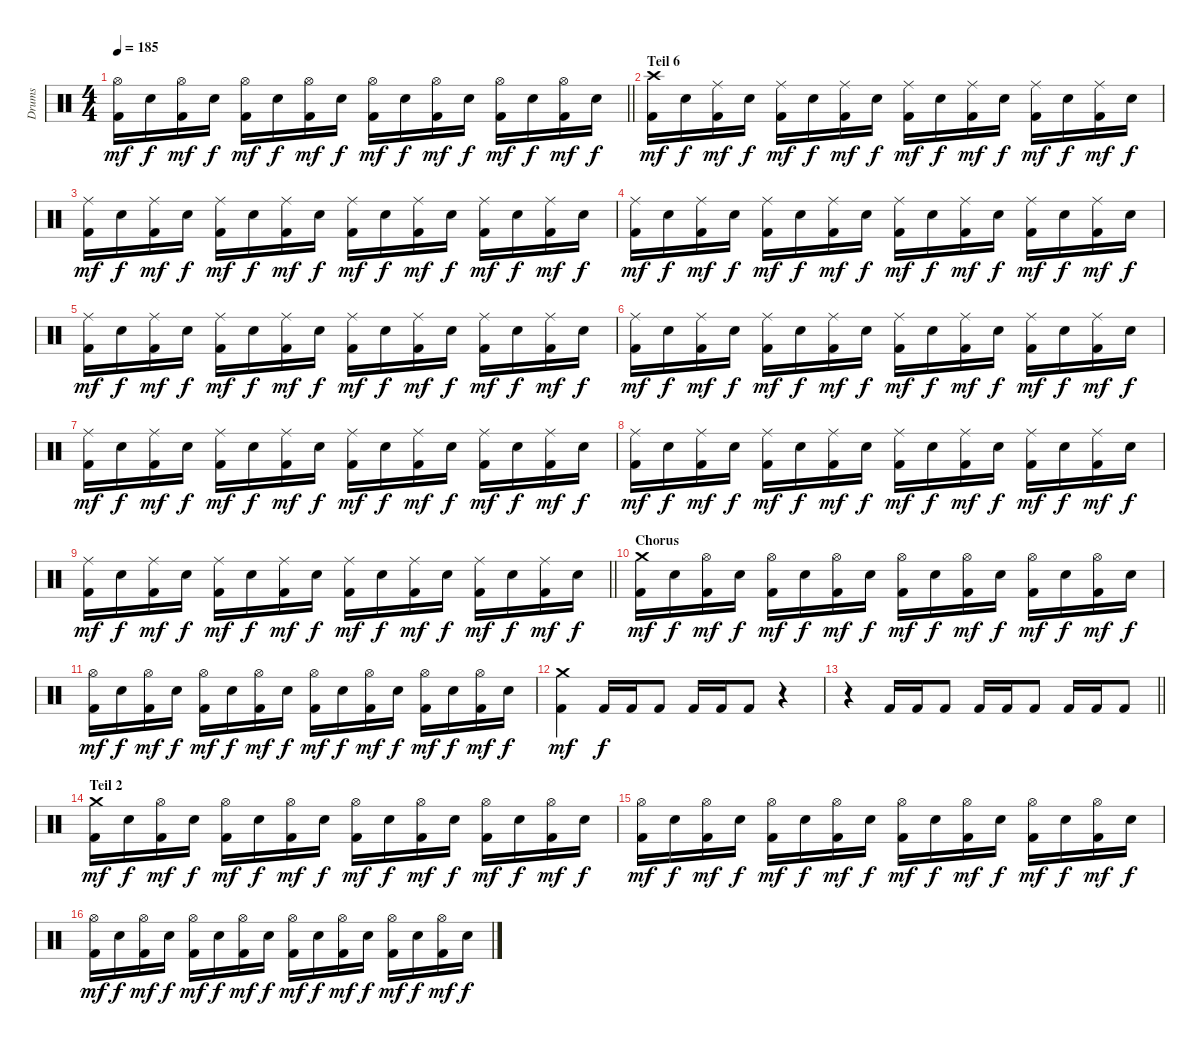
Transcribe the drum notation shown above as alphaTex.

\track ("Drums" "Drums") {instrument percussion}
\staff {score}
\articulation defaults
\ts (4 4)
\tempo 185
\clef neutral
\barLineRight lightlight
\ks c
("Hi-Hat (open)" "Kick (hit) 2").16{dy mf} "Electric Snare (hit)".16{dy f} ("Hi-Hat (open)" "Kick (hit) 2").16{dy mf} "Electric Snare (hit)".16{dy f} ("Hi-Hat (open)" "Kick (hit) 2").16{dy mf} "Electric Snare (hit)".16{dy f} ("Hi-Hat (open)" "Kick (hit) 2").16{dy mf} "Electric Snare (hit)".16{dy f} ("Hi-Hat (open)" "Kick (hit) 2").16{dy mf} "Electric Snare (hit)".16{dy f} ("Hi-Hat (open)" "Kick (hit) 2").16{dy mf} "Electric Snare (hit)".16{dy f} ("Hi-Hat (open)" "Kick (hit) 2").16{dy mf} "Electric Snare (hit)".16{dy f} ("Hi-Hat (open)" "Kick (hit) 2").16{dy mf} "Electric Snare (hit)".16{dy f} |
\section ("" "Teil 6")
("Crash high (hit)" "Kick (hit) 2").16{dy mf} "Electric Snare (hit)".16{dy f} ("Ride (middle)" "Kick (hit) 2").16{dy mf} "Electric Snare (hit)".16{dy f} ("Ride (middle)" "Kick (hit) 2").16{dy mf} "Electric Snare (hit)".16{dy f} ("Ride (middle)" "Kick (hit) 2").16{dy mf} "Electric Snare (hit)".16{dy f} ("Ride (middle)" "Kick (hit) 2").16{dy mf} "Electric Snare (hit)".16{dy f} ("Ride (middle)" "Kick (hit) 2").16{dy mf} "Electric Snare (hit)".16{dy f} ("Ride (middle)" "Kick (hit) 2").16{dy mf} "Electric Snare (hit)".16{dy f} ("Ride (middle)" "Kick (hit) 2").16{dy mf} "Electric Snare (hit)".16{dy f} |
("Ride (middle)" "Kick (hit) 2").16{dy mf} "Electric Snare (hit)".16{dy f} ("Ride (middle)" "Kick (hit) 2").16{dy mf} "Electric Snare (hit)".16{dy f} ("Ride (middle)" "Kick (hit) 2").16{dy mf} "Electric Snare (hit)".16{dy f} ("Ride (middle)" "Kick (hit) 2").16{dy mf} "Electric Snare (hit)".16{dy f} ("Ride (middle)" "Kick (hit) 2").16{dy mf} "Electric Snare (hit)".16{dy f} ("Ride (middle)" "Kick (hit) 2").16{dy mf} "Electric Snare (hit)".16{dy f} ("Ride (middle)" "Kick (hit) 2").16{dy mf} "Electric Snare (hit)".16{dy f} ("Ride (middle)" "Kick (hit) 2").16{dy mf} "Electric Snare (hit)".16{dy f} |
("Ride (middle)" "Kick (hit) 2").16{dy mf} "Electric Snare (hit)".16{dy f} ("Ride (middle)" "Kick (hit) 2").16{dy mf} "Electric Snare (hit)".16{dy f} ("Ride (middle)" "Kick (hit) 2").16{dy mf} "Electric Snare (hit)".16{dy f} ("Ride (middle)" "Kick (hit) 2").16{dy mf} "Electric Snare (hit)".16{dy f} ("Ride (middle)" "Kick (hit) 2").16{dy mf} "Electric Snare (hit)".16{dy f} ("Ride (middle)" "Kick (hit) 2").16{dy mf} "Electric Snare (hit)".16{dy f} ("Ride (middle)" "Kick (hit) 2").16{dy mf} "Electric Snare (hit)".16{dy f} ("Ride (middle)" "Kick (hit) 2").16{dy mf} "Electric Snare (hit)".16{dy f} |
("Ride (middle)" "Kick (hit) 2").16{dy mf} "Electric Snare (hit)".16{dy f} ("Ride (middle)" "Kick (hit) 2").16{dy mf} "Electric Snare (hit)".16{dy f} ("Ride (middle)" "Kick (hit) 2").16{dy mf} "Electric Snare (hit)".16{dy f} ("Ride (middle)" "Kick (hit) 2").16{dy mf} "Electric Snare (hit)".16{dy f} ("Ride (middle)" "Kick (hit) 2").16{dy mf} "Electric Snare (hit)".16{dy f} ("Ride (middle)" "Kick (hit) 2").16{dy mf} "Electric Snare (hit)".16{dy f} ("Ride (middle)" "Kick (hit) 2").16{dy mf} "Electric Snare (hit)".16{dy f} ("Ride (middle)" "Kick (hit) 2").16{dy mf} "Electric Snare (hit)".16{dy f} |
("Ride (middle)" "Kick (hit) 2").16{dy mf} "Electric Snare (hit)".16{dy f} ("Ride (middle)" "Kick (hit) 2").16{dy mf} "Electric Snare (hit)".16{dy f} ("Ride (middle)" "Kick (hit) 2").16{dy mf} "Electric Snare (hit)".16{dy f} ("Ride (middle)" "Kick (hit) 2").16{dy mf} "Electric Snare (hit)".16{dy f} ("Ride (middle)" "Kick (hit) 2").16{dy mf} "Electric Snare (hit)".16{dy f} ("Ride (middle)" "Kick (hit) 2").16{dy mf} "Electric Snare (hit)".16{dy f} ("Ride (middle)" "Kick (hit) 2").16{dy mf} "Electric Snare (hit)".16{dy f} ("Ride (middle)" "Kick (hit) 2").16{dy mf} "Electric Snare (hit)".16{dy f} |
("Ride (middle)" "Kick (hit) 2").16{dy mf} "Electric Snare (hit)".16{dy f} ("Ride (middle)" "Kick (hit) 2").16{dy mf} "Electric Snare (hit)".16{dy f} ("Ride (middle)" "Kick (hit) 2").16{dy mf} "Electric Snare (hit)".16{dy f} ("Ride (middle)" "Kick (hit) 2").16{dy mf} "Electric Snare (hit)".16{dy f} ("Ride (middle)" "Kick (hit) 2").16{dy mf} "Electric Snare (hit)".16{dy f} ("Ride (middle)" "Kick (hit) 2").16{dy mf} "Electric Snare (hit)".16{dy f} ("Ride (middle)" "Kick (hit) 2").16{dy mf} "Electric Snare (hit)".16{dy f} ("Ride (middle)" "Kick (hit) 2").16{dy mf} "Electric Snare (hit)".16{dy f} |
("Ride (middle)" "Kick (hit) 2").16{dy mf} "Electric Snare (hit)".16{dy f} ("Ride (middle)" "Kick (hit) 2").16{dy mf} "Electric Snare (hit)".16{dy f} ("Ride (middle)" "Kick (hit) 2").16{dy mf} "Electric Snare (hit)".16{dy f} ("Ride (middle)" "Kick (hit) 2").16{dy mf} "Electric Snare (hit)".16{dy f} ("Ride (middle)" "Kick (hit) 2").16{dy mf} "Electric Snare (hit)".16{dy f} ("Ride (middle)" "Kick (hit) 2").16{dy mf} "Electric Snare (hit)".16{dy f} ("Ride (middle)" "Kick (hit) 2").16{dy mf} "Electric Snare (hit)".16{dy f} ("Ride (middle)" "Kick (hit) 2").16{dy mf} "Electric Snare (hit)".16{dy f} |
\barLineRight lightlight
("Ride (middle)" "Kick (hit) 2").16{dy mf} "Electric Snare (hit)".16{dy f} ("Ride (middle)" "Kick (hit) 2").16{dy mf} "Electric Snare (hit)".16{dy f} ("Ride (middle)" "Kick (hit) 2").16{dy mf} "Electric Snare (hit)".16{dy f} ("Ride (middle)" "Kick (hit) 2").16{dy mf} "Electric Snare (hit)".16{dy f} ("Ride (middle)" "Kick (hit) 2").16{dy mf} "Electric Snare (hit)".16{dy f} ("Ride (middle)" "Kick (hit) 2").16{dy mf} "Electric Snare (hit)".16{dy f} ("Ride (middle)" "Kick (hit) 2").16{dy mf} "Electric Snare (hit)".16{dy f} ("Ride (middle)" "Kick (hit) 2").16{dy mf} "Electric Snare (hit)".16{dy f} |
\section ("" "Chorus")
("Crash medium (hit)" "Kick (hit) 2").16{dy mf} "Electric Snare (hit)".16{dy f} ("Hi-Hat (open)" "Kick (hit) 2").16{dy mf} "Electric Snare (hit)".16{dy f} ("Hi-Hat (open)" "Kick (hit) 2").16{dy mf} "Electric Snare (hit)".16{dy f} ("Hi-Hat (open)" "Kick (hit) 2").16{dy mf} "Electric Snare (hit)".16{dy f} ("Hi-Hat (open)" "Kick (hit) 2").16{dy mf} "Electric Snare (hit)".16{dy f} ("Hi-Hat (open)" "Kick (hit) 2").16{dy mf} "Electric Snare (hit)".16{dy f} ("Hi-Hat (open)" "Kick (hit) 2").16{dy mf} "Electric Snare (hit)".16{dy f} ("Hi-Hat (open)" "Kick (hit) 2").16{dy mf} "Electric Snare (hit)".16{dy f} |
("Hi-Hat (open)" "Kick (hit) 2").16{dy mf} "Electric Snare (hit)".16{dy f} ("Hi-Hat (open)" "Kick (hit) 2").16{dy mf} "Electric Snare (hit)".16{dy f} ("Hi-Hat (open)" "Kick (hit) 2").16{dy mf} "Electric Snare (hit)".16{dy f} ("Hi-Hat (open)" "Kick (hit) 2").16{dy mf} "Electric Snare (hit)".16{dy f} ("Hi-Hat (open)" "Kick (hit) 2").16{dy mf} "Electric Snare (hit)".16{dy f} ("Hi-Hat (open)" "Kick (hit) 2").16{dy mf} "Electric Snare (hit)".16{dy f} ("Hi-Hat (open)" "Kick (hit) 2").16{dy mf} "Electric Snare (hit)".16{dy f} ("Hi-Hat (open)" "Kick (hit) 2").16{dy mf} "Electric Snare (hit)".16{dy f} |
("Crash medium (hit)" "Kick (hit) 2").4{dy mf} "Kick (hit) 2".16{dy f} "Kick (hit) 2".16 "Kick (hit) 2".8 "Kick (hit) 2".16 "Kick (hit) 2".16 "Kick (hit) 2".8 r.4 |
\barLineRight lightlight
r.4 "Kick (hit) 2".16 "Kick (hit) 2".16 "Kick (hit) 2".8 "Kick (hit) 2".16 "Kick (hit) 2".16 "Kick (hit) 2".8 "Kick (hit) 2".16 "Kick (hit) 2".16 "Kick (hit) 2".8 |
\section ("" "Teil 2")
("Crash medium (hit)" "Kick (hit) 2").16{dy mf} "Electric Snare (hit)".16{dy f} ("Hi-Hat (open)" "Kick (hit) 2").16{dy mf} "Electric Snare (hit)".16{dy f} ("Hi-Hat (open)" "Kick (hit) 2").16{dy mf} "Electric Snare (hit)".16{dy f} ("Hi-Hat (open)" "Kick (hit) 2").16{dy mf} "Electric Snare (hit)".16{dy f} ("Hi-Hat (open)" "Kick (hit) 2").16{dy mf} "Electric Snare (hit)".16{dy f} ("Hi-Hat (open)" "Kick (hit) 2").16{dy mf} "Electric Snare (hit)".16{dy f} ("Hi-Hat (open)" "Kick (hit) 2").16{dy mf} "Electric Snare (hit)".16{dy f} ("Hi-Hat (open)" "Kick (hit) 2").16{dy mf} "Electric Snare (hit)".16{dy f} |
("Hi-Hat (open)" "Kick (hit) 2").16{dy mf} "Electric Snare (hit)".16{dy f} ("Hi-Hat (open)" "Kick (hit) 2").16{dy mf} "Electric Snare (hit)".16{dy f} ("Hi-Hat (open)" "Kick (hit) 2").16{dy mf} "Electric Snare (hit)".16{dy f} ("Hi-Hat (open)" "Kick (hit) 2").16{dy mf} "Electric Snare (hit)".16{dy f} ("Hi-Hat (open)" "Kick (hit) 2").16{dy mf} "Electric Snare (hit)".16{dy f} ("Hi-Hat (open)" "Kick (hit) 2").16{dy mf} "Electric Snare (hit)".16{dy f} ("Hi-Hat (open)" "Kick (hit) 2").16{dy mf} "Electric Snare (hit)".16{dy f} ("Hi-Hat (open)" "Kick (hit) 2").16{dy mf} "Electric Snare (hit)".16{dy f} |
("Hi-Hat (open)" "Kick (hit) 2").16{dy mf} "Electric Snare (hit)".16{dy f} ("Hi-Hat (open)" "Kick (hit) 2").16{dy mf} "Electric Snare (hit)".16{dy f} ("Hi-Hat (open)" "Kick (hit) 2").16{dy mf} "Electric Snare (hit)".16{dy f} ("Hi-Hat (open)" "Kick (hit) 2").16{dy mf} "Electric Snare (hit)".16{dy f} ("Hi-Hat (open)" "Kick (hit) 2").16{dy mf} "Electric Snare (hit)".16{dy f} ("Hi-Hat (open)" "Kick (hit) 2").16{dy mf} "Electric Snare (hit)".16{dy f} ("Hi-Hat (open)" "Kick (hit) 2").16{dy mf} "Electric Snare (hit)".16{dy f} ("Hi-Hat (open)" "Kick (hit) 2").16{dy mf} "Electric Snare (hit)".16{dy f}
